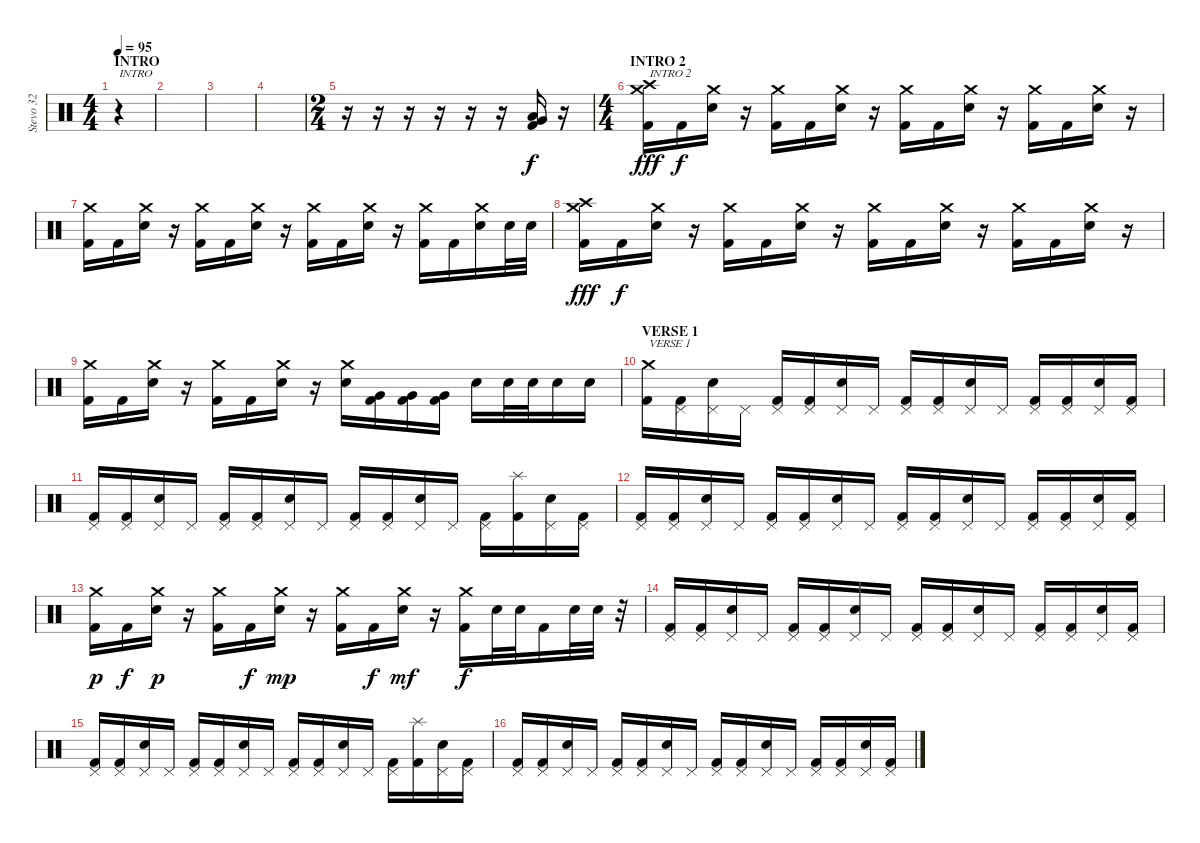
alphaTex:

\track ("Stevo 32" "Stevo 32") {instrument percussion}
\staff {score}
\articulation defaults
\ts (4 4)
\section ("" "INTRO")
\tempo 95
\clef neutral
\ks c
r.4{txt "INTRO" dy f} |
|
|
|
\ts (2 4)
r.16 r.16 r.16 r.16 r.16 r.16 ("Low Floor Tom (hit)" "Very Low Tom (hit)" "Kick (hit) 2").16 r.16 |
\ts (4 4)
\section ("" "INTRO 2")
("Crash high (hit)" "Crash medium (hit)" "Kick (hit) 2").16{txt "INTRO 2" dy fff} "Kick (hit) 2".16{dy f} ("Crash medium (hit)" "Electric Snare (hit)").16 r.16 ("Crash medium (hit)" "Kick (hit) 2").16 "Kick (hit) 2".16 ("Crash medium (hit)" "Electric Snare (hit)").16 r.16 ("Crash medium (hit)" "Kick (hit) 2").16 "Kick (hit) 2".16 ("Crash medium (hit)" "Electric Snare (hit)").16 r.16 ("Crash medium (hit)" "Kick (hit) 2").16 "Kick (hit) 2".16 ("Crash medium (hit)" "Electric Snare (hit)").16 r.16 |
("Crash medium (hit)" "Kick (hit) 2").16 "Kick (hit) 2".16 ("Crash medium (hit)" "Electric Snare (hit)").16 r.16 ("Crash medium (hit)" "Kick (hit) 2").16 "Kick (hit) 2".16 ("Crash medium (hit)" "Electric Snare (hit)").16 r.16 ("Crash medium (hit)" "Kick (hit) 2").16 "Kick (hit) 2".16 ("Crash medium (hit)" "Electric Snare (hit)").16 r.16 ("Crash medium (hit)" "Kick (hit) 2").16 "Kick (hit) 2".16 ("Crash medium (hit)" "Electric Snare (hit)").16 "Electric Snare (hit)".32 "Electric Snare (hit)".32 |
("Crash high (hit)" "Crash medium (hit)" "Kick (hit) 2").16{dy fff} "Kick (hit) 2".16{dy f} ("Crash medium (hit)" "Electric Snare (hit)").16 r.16 ("Crash medium (hit)" "Kick (hit) 2").16 "Kick (hit) 2".16 ("Crash medium (hit)" "Electric Snare (hit)").16 r.16 ("Crash medium (hit)" "Kick (hit) 2").16 "Kick (hit) 2".16 ("Crash medium (hit)" "Electric Snare (hit)").16 r.16 ("Crash medium (hit)" "Kick (hit) 2").16 "Kick (hit) 2".16 ("Crash medium (hit)" "Electric Snare (hit)").16 r.16 |
("Crash medium (hit)" "Kick (hit) 2").16 "Kick (hit) 2".16 ("Crash medium (hit)" "Electric Snare (hit)").16 r.16 ("Crash medium (hit)" "Kick (hit) 2").16 "Kick (hit) 2".16 ("Crash medium (hit)" "Electric Snare (hit)").16 r.16 ("Crash medium (hit)" "Electric Snare (hit)").16 ("Very Low Tom (hit)" "Kick (hit) 2").16 ("Very Low Tom (hit)" "Kick (hit) 2").16 ("Very Low Tom (hit)" "Kick (hit) 2").16 "Electric Snare (hit)".16 "Electric Snare (hit)".32 "Electric Snare (hit)".32 "Electric Snare (hit)".16 "Electric Snare (hit)".16 |
\section ("" "VERSE 1")
("Crash medium (hit)" "Kick (hit) 2").16{txt "VERSE 1"} ("Pedal Hi-Hat (hit)" "Kick (hit) 2").16 ("Pedal Hi-Hat (hit)" "Electric Snare (hit)").16 "Pedal Hi-Hat (hit)".16 ("Pedal Hi-Hat (hit)" "Kick (hit) 2").16 ("Pedal Hi-Hat (hit)" "Kick (hit) 2").16 ("Pedal Hi-Hat (hit)" "Electric Snare (hit)").16 "Pedal Hi-Hat (hit)".16 ("Pedal Hi-Hat (hit)" "Kick (hit) 2").16 ("Pedal Hi-Hat (hit)" "Kick (hit) 2").16 ("Pedal Hi-Hat (hit)" "Electric Snare (hit)").16 "Pedal Hi-Hat (hit)".16 ("Pedal Hi-Hat (hit)" "Kick (hit) 2").16 ("Pedal Hi-Hat (hit)" "Kick (hit) 2").16 ("Pedal Hi-Hat (hit)" "Electric Snare (hit)").16 ("Pedal Hi-Hat (hit)" "Kick (hit) 2").16 |
("Pedal Hi-Hat (hit)" "Kick (hit) 2").16 ("Pedal Hi-Hat (hit)" "Kick (hit) 2").16 ("Pedal Hi-Hat (hit)" "Electric Snare (hit)").16 "Pedal Hi-Hat (hit)".16 ("Pedal Hi-Hat (hit)" "Kick (hit) 2").16 ("Pedal Hi-Hat (hit)" "Kick (hit) 2").16 ("Pedal Hi-Hat (hit)" "Electric Snare (hit)").16 "Pedal Hi-Hat (hit)".16 ("Pedal Hi-Hat (hit)" "Kick (hit) 2").16 ("Pedal Hi-Hat (hit)" "Kick (hit) 2").16 ("Pedal Hi-Hat (hit)" "Electric Snare (hit)").16 "Pedal Hi-Hat (hit)".16 ("Pedal Hi-Hat (hit)" "Kick (hit) 2").16 ("Splash (hit)" "Kick (hit) 2").16 ("Pedal Hi-Hat (hit)" "Electric Snare (hit)").16 ("Pedal Hi-Hat (hit)" "Kick (hit) 2").16 |
("Pedal Hi-Hat (hit)" "Kick (hit) 2").16 ("Pedal Hi-Hat (hit)" "Kick (hit) 2").16 ("Pedal Hi-Hat (hit)" "Electric Snare (hit)").16 "Pedal Hi-Hat (hit)".16 ("Pedal Hi-Hat (hit)" "Kick (hit) 2").16 ("Pedal Hi-Hat (hit)" "Kick (hit) 2").16 ("Pedal Hi-Hat (hit)" "Electric Snare (hit)").16 "Pedal Hi-Hat (hit)".16 ("Pedal Hi-Hat (hit)" "Kick (hit) 2").16 ("Pedal Hi-Hat (hit)" "Kick (hit) 2").16 ("Pedal Hi-Hat (hit)" "Electric Snare (hit)").16 "Pedal Hi-Hat (hit)".16 ("Pedal Hi-Hat (hit)" "Kick (hit) 2").16 ("Pedal Hi-Hat (hit)" "Kick (hit) 2").16 ("Pedal Hi-Hat (hit)" "Electric Snare (hit)").16 ("Pedal Hi-Hat (hit)" "Kick (hit) 2").16 |
("Crash medium (hit)" "Kick (hit) 2").16{dy p} "Kick (hit) 2".16{dy f} ("Crash medium (hit)" "Electric Snare (hit)").16{dy p} r.16 ("Crash medium (hit)" "Kick (hit) 2").16 "Kick (hit) 2".16{dy f} ("Crash medium (hit)" "Electric Snare (hit)").16{dy mp} r.16 ("Crash medium (hit)" "Kick (hit) 2").16 "Kick (hit) 2".16{dy f} ("Crash medium (hit)" "Electric Snare (hit)").16{dy mf} r.16 ("Crash medium (hit)" "Kick (hit) 2").16{dy f} "Electric Snare (hit)".32 "Electric Snare (hit)".32 "Kick (hit) 2".16 "Electric Snare (hit)".32 "Electric Snare (hit)".32 r.32 |
("Pedal Hi-Hat (hit)" "Kick (hit) 2").16 ("Pedal Hi-Hat (hit)" "Kick (hit) 2").16 ("Pedal Hi-Hat (hit)" "Electric Snare (hit)").16 "Pedal Hi-Hat (hit)".16 ("Pedal Hi-Hat (hit)" "Kick (hit) 2").16 ("Pedal Hi-Hat (hit)" "Kick (hit) 2").16 ("Pedal Hi-Hat (hit)" "Electric Snare (hit)").16 "Pedal Hi-Hat (hit)".16 ("Pedal Hi-Hat (hit)" "Kick (hit) 2").16 ("Pedal Hi-Hat (hit)" "Kick (hit) 2").16 ("Pedal Hi-Hat (hit)" "Electric Snare (hit)").16 "Pedal Hi-Hat (hit)".16 ("Pedal Hi-Hat (hit)" "Kick (hit) 2").16 ("Pedal Hi-Hat (hit)" "Kick (hit) 2").16 ("Pedal Hi-Hat (hit)" "Electric Snare (hit)").16 ("Pedal Hi-Hat (hit)" "Kick (hit) 2").16 |
("Pedal Hi-Hat (hit)" "Kick (hit) 2").16 ("Pedal Hi-Hat (hit)" "Kick (hit) 2").16 ("Pedal Hi-Hat (hit)" "Electric Snare (hit)").16 "Pedal Hi-Hat (hit)".16 ("Pedal Hi-Hat (hit)" "Kick (hit) 2").16 ("Pedal Hi-Hat (hit)" "Kick (hit) 2").16 ("Pedal Hi-Hat (hit)" "Electric Snare (hit)").16 "Pedal Hi-Hat (hit)".16 ("Pedal Hi-Hat (hit)" "Kick (hit) 2").16 ("Pedal Hi-Hat (hit)" "Kick (hit) 2").16 ("Pedal Hi-Hat (hit)" "Electric Snare (hit)").16 "Pedal Hi-Hat (hit)".16 ("Pedal Hi-Hat (hit)" "Kick (hit) 2").16 ("Splash (hit)" "Kick (hit) 2").16 ("Pedal Hi-Hat (hit)" "Electric Snare (hit)").16 ("Pedal Hi-Hat (hit)" "Kick (hit) 2").16 |
("Pedal Hi-Hat (hit)" "Kick (hit) 2").16 ("Pedal Hi-Hat (hit)" "Kick (hit) 2").16 ("Pedal Hi-Hat (hit)" "Electric Snare (hit)").16 "Pedal Hi-Hat (hit)".16 ("Pedal Hi-Hat (hit)" "Kick (hit) 2").16 ("Pedal Hi-Hat (hit)" "Kick (hit) 2").16 ("Pedal Hi-Hat (hit)" "Electric Snare (hit)").16 "Pedal Hi-Hat (hit)".16 ("Pedal Hi-Hat (hit)" "Kick (hit) 2").16 ("Pedal Hi-Hat (hit)" "Kick (hit) 2").16 ("Pedal Hi-Hat (hit)" "Electric Snare (hit)").16 "Pedal Hi-Hat (hit)".16 ("Pedal Hi-Hat (hit)" "Kick (hit) 2").16 ("Pedal Hi-Hat (hit)" "Kick (hit) 2").16 ("Pedal Hi-Hat (hit)" "Electric Snare (hit)").16 ("Pedal Hi-Hat (hit)" "Kick (hit) 2").16
